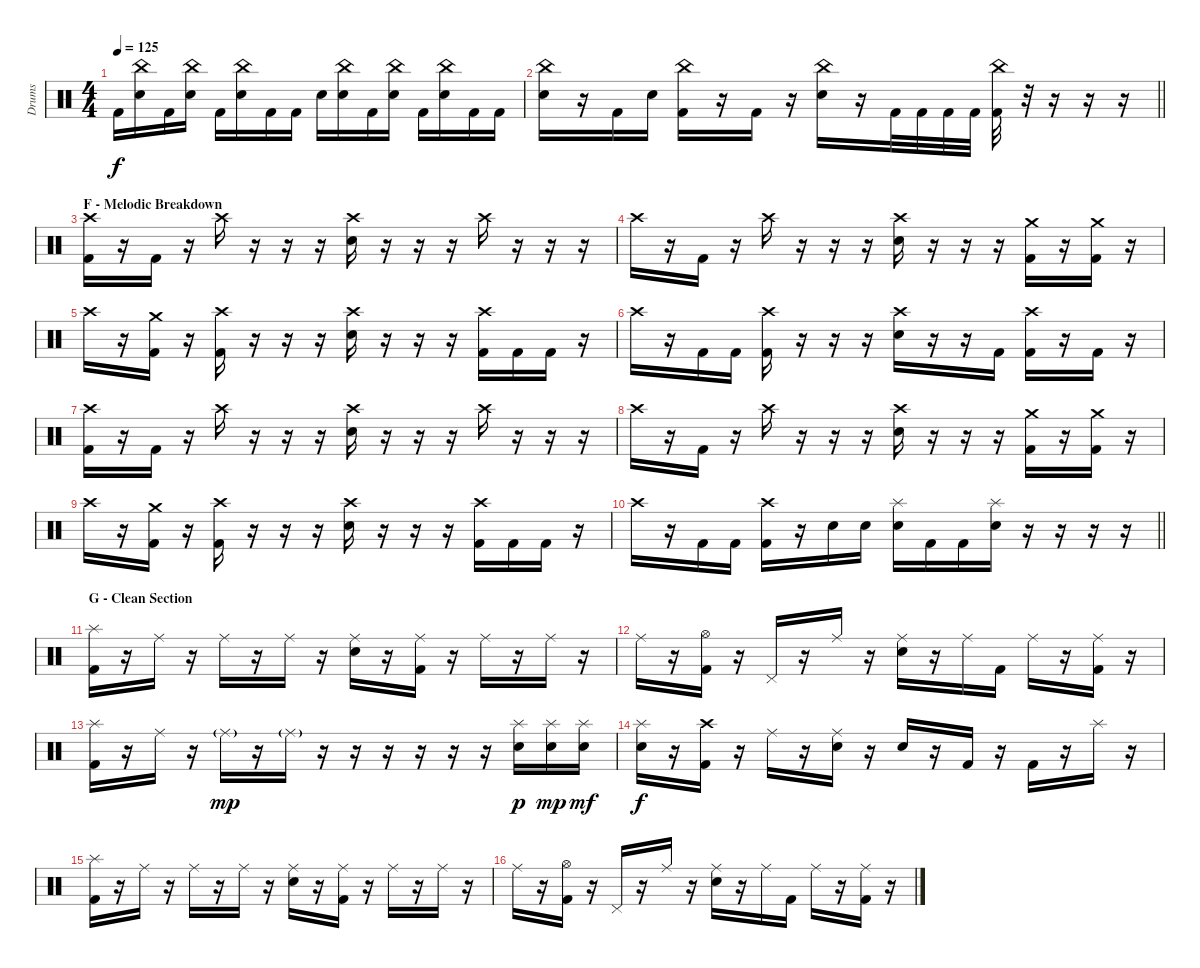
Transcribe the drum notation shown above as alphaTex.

\track ("Drums" "Drums") {instrument percussion}
\staff {score}
\articulation defaults
\ts (4 4)
\tempo 125
\clef neutral
\ks c "Kick (hit) 2".16{dy f}
("China (hit)" "Electric Snare (hit)").16 "Kick (hit) 2".16 ("China (hit)" "Electric Snare (hit)").16 "Kick (hit) 2".16 ("China (hit)" "Electric Snare (hit)").16 "Kick (hit) 2".16 "Kick (hit) 2".16 "Electric Snare (hit)".16 ("China (hit)" "Electric Snare (hit)").16 "Kick (hit) 2".16 ("China (hit)" "Electric Snare (hit)").16 "Kick (hit) 2".16 ("China (hit)" "Electric Snare (hit)").16 "Kick (hit) 2".16 "Kick (hit) 2".16 |
\barLineRight lightlight
("China (hit)" "Electric Snare (hit)").16 r.16 "Kick (hit) 2".16 "Electric Snare (hit)".16 ("China (hit)" "Kick (hit) 2").16 r.16 "Kick (hit) 2".16 r.16 ("China (hit)" "Electric Snare (hit)").16 r.16 "Kick (hit) 2".32 "Kick (hit) 2".32 "Kick (hit) 2".32 "Kick (hit) 2".32 ("China (hit)" "Kick (hit) 2").32 r.32 r.16 r.16 r.16 |
\section ("" "F - Melodic Breakdown")
("Crash high (hit)" "Kick (hit) 2").16 r.16 "Kick (hit) 2".16 r.16 "Crash high (hit)".16 r.16 r.16 r.16 ("Crash high (hit)" "Electric Snare (hit)").16 r.16 r.16 r.16 "Crash high (hit)".16 r.16 r.16 r.16 |
"Crash high (hit)".16 r.16 "Kick (hit) 2".16 r.16 "Crash high (hit)".16 r.16 r.16 r.16 ("Crash high (hit)" "Electric Snare (hit)").16 r.16 r.16 r.16 ("Crash medium (hit)" "Kick (hit) 2").16 r.16 ("Crash medium (hit)" "Kick (hit) 2").16 r.16 |
"Crash high (hit)".16 r.16 ("Crash medium (hit)" "Kick (hit) 2").16 r.16 ("Crash high (hit)" "Kick (hit) 2").16 r.16 r.16 r.16 ("Crash high (hit)" "Electric Snare (hit)").16 r.16 r.16 r.16 ("Crash high (hit)" "Kick (hit) 2").16 "Kick (hit) 2".16 "Kick (hit) 2".16 r.16 |
"Crash high (hit)".16 r.16 "Kick (hit) 2".16 "Kick (hit) 2".16 ("Crash high (hit)" "Kick (hit) 2").16 r.16 r.16 r.16 ("Crash high (hit)" "Electric Snare (hit)").16 r.16 r.16 "Kick (hit) 2".16 ("Crash high (hit)" "Kick (hit) 2").16 r.16 "Kick (hit) 2".16 r.16 |
("Crash high (hit)" "Kick (hit) 2").16 r.16 "Kick (hit) 2".16 r.16 "Crash high (hit)".16 r.16 r.16 r.16 ("Crash high (hit)" "Electric Snare (hit)").16 r.16 r.16 r.16 "Crash high (hit)".16 r.16 r.16 r.16 |
"Crash high (hit)".16 r.16 "Kick (hit) 2".16 r.16 "Crash high (hit)".16 r.16 r.16 r.16 ("Crash high (hit)" "Electric Snare (hit)").16 r.16 r.16 r.16 ("Crash medium (hit)" "Kick (hit) 2").16 r.16 ("Crash medium (hit)" "Kick (hit) 2").16 r.16 |
"Crash high (hit)".16 r.16 ("Crash medium (hit)" "Kick (hit) 2").16 r.16 ("Crash high (hit)" "Kick (hit) 2").16 r.16 r.16 r.16 ("Crash high (hit)" "Electric Snare (hit)").16 r.16 r.16 r.16 ("Crash high (hit)" "Kick (hit) 2").16 "Kick (hit) 2".16 "Kick (hit) 2".16 r.16 |
\barLineRight lightlight "Crash high (hit)".16
r.16 "Kick (hit) 2".16 "Kick (hit) 2".16 ("Crash high (hit)" "Kick (hit) 2").16 r.16 "Electric Snare (hit)".16 "Electric Snare (hit)".16 ("Splash (hit)" "Electric Snare (hit)").16 "Kick (hit) 2".16 "Kick (hit) 2".16 ("Splash (hit)" "Electric Snare (hit)").16 r.16 r.16 r.16 r.16 |
\section ("" "G - Clean Section")
("Splash (hit)" "Kick (hit) 2").16 r.16 "Ride (middle)".16 r.16 "Ride (middle)".16 r.16 "Ride (middle)".16 r.16 ("Ride (middle)" "Electric Snare (hit)").16 r.16 ("Ride (middle)" "Kick (hit) 2").16 r.16 "Ride (middle)".16 r.16 "Ride (middle)".16 r.16 |
"Ride (middle)".16 r.16 ("Hi-Hat (open)" "Kick (hit) 2").16 r.16 "Pedal Hi-Hat (hit)".16 r.16 "Ride (middle)".16 r.16 ("Ride (middle)" "Electric Snare (hit)").16 r.16 "Ride (middle)".16 "Kick (hit) 2".16 "Ride (middle)".16 r.16 ("Ride (middle)" "Kick (hit) 2").16 r.16 |
("Splash (hit)" "Kick (hit) 2").16 r.16 "Ride (middle)".16 r.16 "Ride (middle)"{g}.16{dy mp} r.16 "Ride (middle)"{g}.16 r.16 r.16 r.16 r.16 r.16 r.16 ("Splash (hit)" "Electric Snare (hit)").16{dy p} ("Splash (hit)" "Electric Snare (hit)").16{dy mp} ("Splash (hit)" "Electric Snare (hit)").16{dy mf} |
("Splash (hit)" "Electric Snare (hit)").16{dy f} r.16 ("Crash high (hit)" "Kick (hit) 2").16 r.16 "Ride (middle)".16 r.16 ("Ride (middle)" "Electric Snare (hit)").16 r.16 "Electric Snare (hit)".16 r.16 "Kick (hit) 2".16 r.16 "Kick (hit) 2".16 r.16 "Splash (hit)".16 r.16 |
("Splash (hit)" "Kick (hit) 2").16 r.16 "Ride (middle)".16 r.16 "Ride (middle)".16 r.16 "Ride (middle)".16 r.16 ("Ride (middle)" "Electric Snare (hit)").16 r.16 ("Ride (middle)" "Kick (hit) 2").16 r.16 "Ride (middle)".16 r.16 "Ride (middle)".16 r.16 |
"Ride (middle)".16 r.16 ("Hi-Hat (open)" "Kick (hit) 2").16 r.16 "Pedal Hi-Hat (hit)".16 r.16 "Ride (middle)".16 r.16 ("Ride (middle)" "Electric Snare (hit)").16 r.16 "Ride (middle)".16 "Kick (hit) 2".16 "Ride (middle)".16 r.16 ("Ride (middle)" "Kick (hit) 2").16 r.16
